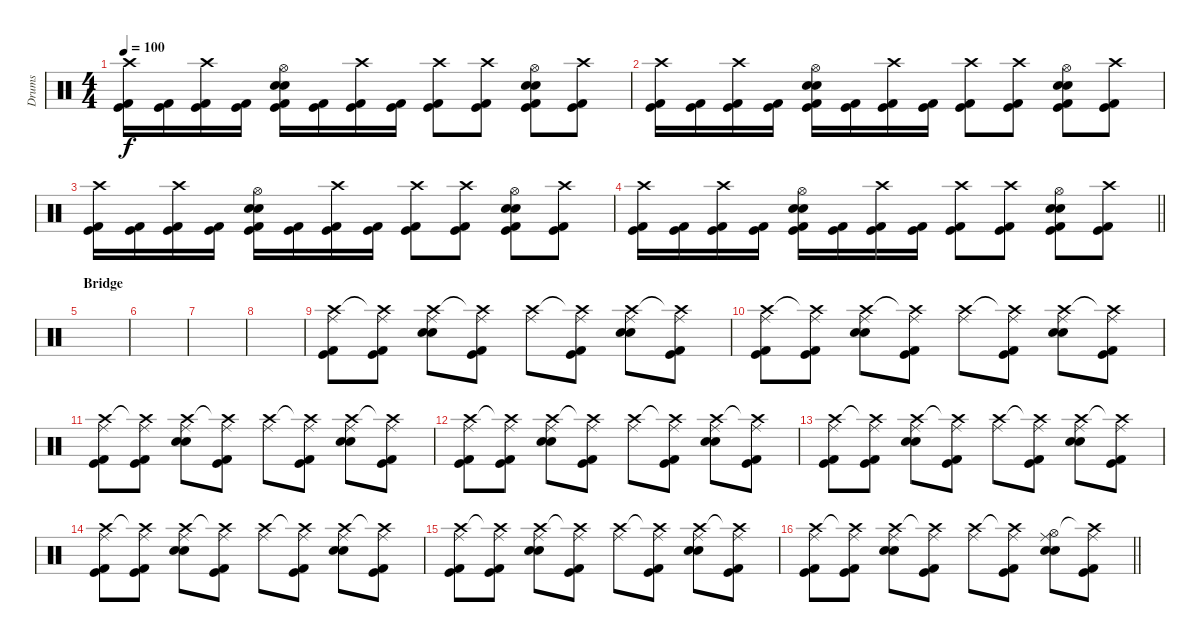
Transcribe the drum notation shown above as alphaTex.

\track ("Drums" "Drums") {instrument percussion}
\staff {score}
\articulation defaults
\ts (4 4)
\tempo 100
\clef neutral
\ks c
("Crash high (hit)" "Kick (hit) 2" "Kick (hit)").16{dy f} ("Kick (hit) 2" "Kick (hit)").16 ("Crash high (hit)" "Kick (hit) 2" "Kick (hit)").16 ("Kick (hit) 2" "Kick (hit)").16 ("Hi-Hat (open)" "Electric Snare (hit)" "Electric Snare (hit)" "Kick (hit) 2" "Kick (hit)").16 ("Kick (hit) 2" "Kick (hit)").16 ("Crash high (hit)" "Kick (hit) 2" "Kick (hit)").16 ("Kick (hit) 2" "Kick (hit)").16 ("Crash high (hit)" "Kick (hit) 2" "Kick (hit)").8 ("Crash high (hit)" "Kick (hit) 2" "Kick (hit)").8 ("Hi-Hat (open)" "Electric Snare (hit)" "Electric Snare (hit)" "Kick (hit) 2" "Kick (hit)").8 ("Crash high (hit)" "Kick (hit) 2" "Kick (hit)").8 |
("Crash high (hit)" "Kick (hit) 2" "Kick (hit)").16 ("Kick (hit) 2" "Kick (hit)").16 ("Crash high (hit)" "Kick (hit) 2" "Kick (hit)").16 ("Kick (hit) 2" "Kick (hit)").16 ("Hi-Hat (open)" "Electric Snare (hit)" "Electric Snare (hit)" "Kick (hit) 2" "Kick (hit)").16 ("Kick (hit) 2" "Kick (hit)").16 ("Crash high (hit)" "Kick (hit) 2" "Kick (hit)").16 ("Kick (hit) 2" "Kick (hit)").16 ("Crash high (hit)" "Kick (hit) 2" "Kick (hit)").8 ("Crash high (hit)" "Kick (hit) 2" "Kick (hit)").8 ("Hi-Hat (open)" "Electric Snare (hit)" "Electric Snare (hit)" "Kick (hit) 2" "Kick (hit)").8 ("Crash high (hit)" "Kick (hit) 2" "Kick (hit)").8 |
("Crash high (hit)" "Kick (hit) 2" "Kick (hit)").16 ("Kick (hit) 2" "Kick (hit)").16 ("Crash high (hit)" "Kick (hit) 2" "Kick (hit)").16 ("Kick (hit) 2" "Kick (hit)").16 ("Hi-Hat (open)" "Electric Snare (hit)" "Electric Snare (hit)" "Kick (hit) 2" "Kick (hit)").16 ("Kick (hit) 2" "Kick (hit)").16 ("Crash high (hit)" "Kick (hit) 2" "Kick (hit)").16 ("Kick (hit) 2" "Kick (hit)").16 ("Crash high (hit)" "Kick (hit) 2" "Kick (hit)").8 ("Crash high (hit)" "Kick (hit) 2" "Kick (hit)").8 ("Hi-Hat (open)" "Electric Snare (hit)" "Electric Snare (hit)" "Kick (hit) 2" "Kick (hit)").8 ("Crash high (hit)" "Kick (hit) 2" "Kick (hit)").8 |
\barLineRight lightlight
("Crash high (hit)" "Kick (hit) 2" "Kick (hit)").16 ("Kick (hit) 2" "Kick (hit)").16 ("Crash high (hit)" "Kick (hit) 2" "Kick (hit)").16 ("Kick (hit) 2" "Kick (hit)").16 ("Hi-Hat (open)" "Electric Snare (hit)" "Electric Snare (hit)" "Kick (hit) 2" "Kick (hit)").16 ("Kick (hit) 2" "Kick (hit)").16 ("Crash high (hit)" "Kick (hit) 2" "Kick (hit)").16 ("Kick (hit) 2" "Kick (hit)").16 ("Crash high (hit)" "Kick (hit) 2" "Kick (hit)").8 ("Crash high (hit)" "Kick (hit) 2" "Kick (hit)").8 ("Hi-Hat (open)" "Electric Snare (hit)" "Electric Snare (hit)" "Kick (hit) 2" "Kick (hit)").8 ("Crash high (hit)" "Kick (hit) 2" "Kick (hit)").8 |
\section ("" "Bridge")
|
|
|
|
("Crash high (hit)" "Ride (middle)" "Kick (hit) 2" "Kick (hit)").8 ("Crash high (hit)"{t} "Ride (middle)" "Kick (hit) 2" "Kick (hit)").8 ("Crash high (hit)" "Ride (middle)" "Electric Snare (hit)" "Electric Snare (hit)").8 ("Crash high (hit)"{t} "Ride (middle)" "Kick (hit) 2" "Kick (hit)").8 ("Crash high (hit)" "Ride (middle)").8 ("Crash high (hit)"{t} "Ride (middle)" "Kick (hit) 2" "Kick (hit)").8 ("Crash high (hit)" "Ride (middle)" "Electric Snare (hit)" "Electric Snare (hit)").8 ("Crash high (hit)"{t} "Ride (middle)" "Kick (hit) 2" "Kick (hit)").8 |
("Crash high (hit)" "Ride (middle)" "Kick (hit) 2" "Kick (hit)").8 ("Crash high (hit)"{t} "Ride (middle)" "Kick (hit) 2" "Kick (hit)").8 ("Crash high (hit)" "Ride (middle)" "Electric Snare (hit)" "Electric Snare (hit)").8 ("Crash high (hit)"{t} "Ride (middle)" "Kick (hit) 2" "Kick (hit)").8 ("Crash high (hit)" "Ride (middle)").8 ("Crash high (hit)"{t} "Ride (middle)" "Kick (hit) 2" "Kick (hit)").8 ("Crash high (hit)" "Ride (middle)" "Electric Snare (hit)" "Electric Snare (hit)").8 ("Crash high (hit)"{t} "Ride (middle)" "Kick (hit) 2" "Kick (hit)").8 |
("Crash high (hit)" "Ride (middle)" "Kick (hit) 2" "Kick (hit)").8 ("Crash high (hit)"{t} "Ride (middle)" "Kick (hit) 2" "Kick (hit)").8 ("Crash high (hit)" "Ride (middle)" "Electric Snare (hit)" "Electric Snare (hit)").8 ("Crash high (hit)"{t} "Ride (middle)" "Kick (hit) 2" "Kick (hit)").8 ("Crash high (hit)" "Ride (middle)").8 ("Crash high (hit)"{t} "Ride (middle)" "Kick (hit) 2" "Kick (hit)").8 ("Crash high (hit)" "Ride (middle)" "Electric Snare (hit)" "Electric Snare (hit)").8 ("Crash high (hit)"{t} "Ride (middle)" "Kick (hit) 2" "Kick (hit)").8 |
("Crash high (hit)" "Ride (middle)" "Kick (hit) 2" "Kick (hit)").8 ("Crash high (hit)"{t} "Ride (middle)" "Kick (hit) 2" "Kick (hit)").8 ("Crash high (hit)" "Ride (middle)" "Electric Snare (hit)" "Electric Snare (hit)").8 ("Crash high (hit)"{t} "Ride (middle)" "Kick (hit) 2" "Kick (hit)").8 ("Crash high (hit)" "Ride (middle)").8 ("Crash high (hit)"{t} "Ride (middle)" "Kick (hit) 2" "Kick (hit)").8 ("Crash high (hit)" "Ride (middle)" "Electric Snare (hit)" "Electric Snare (hit)").8 ("Crash high (hit)"{t} "Ride (middle)" "Kick (hit) 2" "Kick (hit)").8 |
("Crash high (hit)" "Ride (middle)" "Kick (hit) 2" "Kick (hit)").8 ("Crash high (hit)"{t} "Ride (middle)" "Kick (hit) 2" "Kick (hit)").8 ("Crash high (hit)" "Ride (middle)" "Electric Snare (hit)" "Electric Snare (hit)").8 ("Crash high (hit)"{t} "Ride (middle)" "Kick (hit) 2" "Kick (hit)").8 ("Crash high (hit)" "Ride (middle)").8 ("Crash high (hit)"{t} "Ride (middle)" "Kick (hit) 2" "Kick (hit)").8 ("Crash high (hit)" "Ride (middle)" "Electric Snare (hit)" "Electric Snare (hit)").8 ("Crash high (hit)"{t} "Ride (middle)" "Kick (hit) 2" "Kick (hit)").8 |
("Crash high (hit)" "Ride (middle)" "Kick (hit) 2" "Kick (hit)").8 ("Crash high (hit)"{t} "Ride (middle)" "Kick (hit) 2" "Kick (hit)").8 ("Crash high (hit)" "Ride (middle)" "Electric Snare (hit)" "Electric Snare (hit)").8 ("Crash high (hit)"{t} "Ride (middle)" "Kick (hit) 2" "Kick (hit)").8 ("Crash high (hit)" "Ride (middle)").8 ("Crash high (hit)"{t} "Ride (middle)" "Kick (hit) 2" "Kick (hit)").8 ("Crash high (hit)" "Ride (middle)" "Electric Snare (hit)" "Electric Snare (hit)").8 ("Crash high (hit)"{t} "Ride (middle)" "Kick (hit) 2" "Kick (hit)").8 |
("Crash high (hit)" "Ride (middle)" "Kick (hit) 2" "Kick (hit)").8 ("Crash high (hit)"{t} "Ride (middle)" "Kick (hit) 2" "Kick (hit)").8 ("Crash high (hit)" "Ride (middle)" "Electric Snare (hit)" "Electric Snare (hit)").8 ("Crash high (hit)"{t} "Ride (middle)" "Kick (hit) 2" "Kick (hit)").8 ("Crash high (hit)" "Ride (middle)").8 ("Crash high (hit)"{t} "Ride (middle)" "Kick (hit) 2" "Kick (hit)").8 ("Crash high (hit)" "Ride (middle)" "Electric Snare (hit)" "Electric Snare (hit)").8 ("Crash high (hit)"{t} "Ride (middle)" "Kick (hit) 2" "Kick (hit)").8 |
\barLineRight lightlight
("Crash high (hit)" "Ride (middle)" "Kick (hit) 2" "Kick (hit)").8 ("Crash high (hit)"{t} "Ride (middle)" "Kick (hit) 2" "Kick (hit)").8 ("Crash high (hit)" "Ride (middle)" "Electric Snare (hit)" "Electric Snare (hit)").8 ("Crash high (hit)"{t} "Ride (middle)" "Kick (hit) 2" "Kick (hit)").8 ("Crash high (hit)" "Ride (middle)").8 ("Crash high (hit)"{t} "Ride (middle)" "Kick (hit) 2" "Kick (hit)").8 ("Hi-Hat (open)" "Ride (middle)" "Electric Snare (hit)" "Electric Snare (hit)").8 ("Crash high (hit)"{t} "Ride (middle)" "Kick (hit) 2" "Kick (hit)").8
